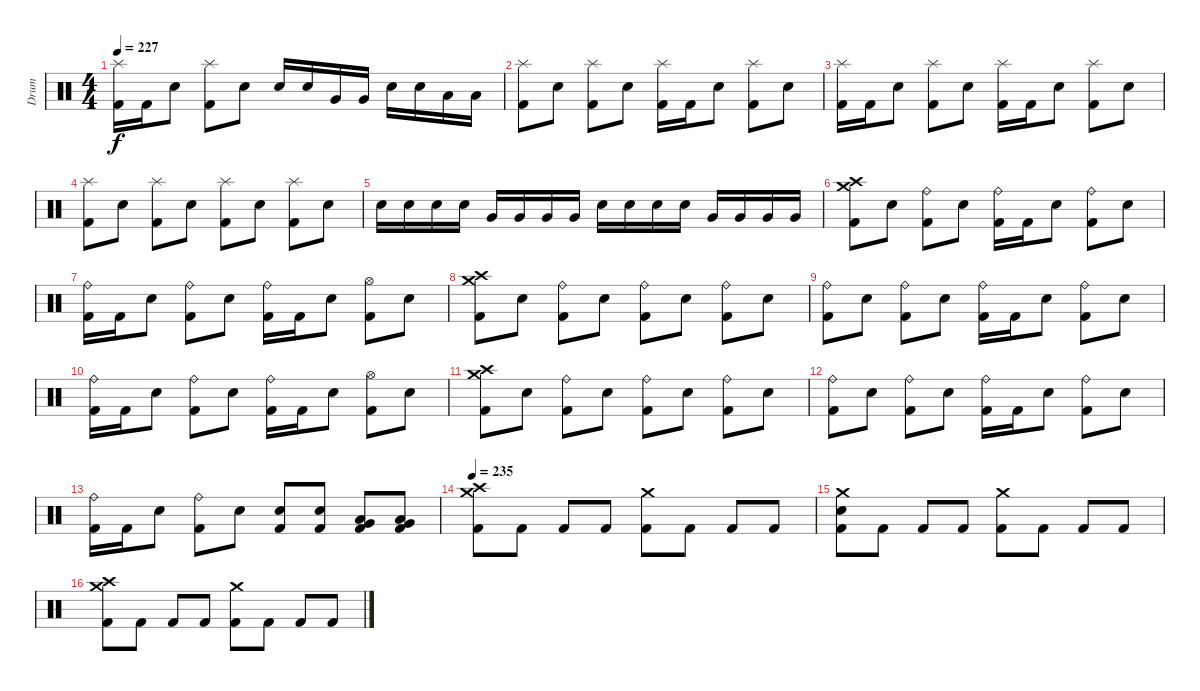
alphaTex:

\track ("Drum" "Drum") {instrument percussion}
\staff {score}
\articulation defaults
\ts (4 4)
\tempo 227
\clef neutral
\ks c
("Splash (hit)" "Kick (hit) 2").16{dy f} "Kick (hit) 2".16 "Electric Snare (hit)".8 ("Splash (hit)" "Kick (hit) 2").8 "Electric Snare (hit)".8 "Electric Snare (hit)".16 "Electric Snare (hit)".16 "Very Low Tom (hit)".16 "Very Low Tom (hit)".16 "Electric Snare (hit)".16 "Electric Snare (hit)".16 "Low Tom (hit)".16 "Low Tom (hit)".16 |
("Splash (hit)" "Kick (hit) 2").8 "Electric Snare (hit)".8 ("Splash (hit)" "Kick (hit) 2").8 "Electric Snare (hit)".8 ("Splash (hit)" "Kick (hit) 2").16 "Kick (hit) 2".16 "Electric Snare (hit)".8 ("Splash (hit)" "Kick (hit) 2").8 "Electric Snare (hit)".8 |
("Splash (hit)" "Kick (hit) 2").16 "Kick (hit) 2".16 "Electric Snare (hit)".8 ("Splash (hit)" "Kick (hit) 2").8 "Electric Snare (hit)".8 ("Splash (hit)" "Kick (hit) 2").16 "Kick (hit) 2".16 "Electric Snare (hit)".8 ("Splash (hit)" "Kick (hit) 2").8 "Electric Snare (hit)".8 |
("Splash (hit)" "Kick (hit) 2").8 "Electric Snare (hit)".8 ("Splash (hit)" "Kick (hit) 2").8 "Electric Snare (hit)".8 ("Splash (hit)" "Kick (hit) 2").8 "Electric Snare (hit)".8 ("Splash (hit)" "Kick (hit) 2").8 "Electric Snare (hit)".8 |
"Electric Snare (hit)".16 "Electric Snare (hit)".16 "Electric Snare (hit)".16 "Electric Snare (hit)".16 "Very Low Tom (hit)".16 "Very Low Tom (hit)".16 "Very Low Tom (hit)".16 "Very Low Tom (hit)".16 "Electric Snare (hit)".16 "Electric Snare (hit)".16 "Electric Snare (hit)".16 "Electric Snare (hit)".16 "Very Low Tom (hit)".16 "Very Low Tom (hit)".16 "Very Low Tom (hit)".16 "Very Low Tom (hit)".16 |
("Crash medium (hit)" "Crash high (hit)" "Kick (hit) 2").8 "Electric Snare (hit)".8 ("Ride (bell)" "Kick (hit) 2").8 "Electric Snare (hit)".8 ("Ride (bell)" "Kick (hit) 2").16 "Kick (hit) 2".16 "Electric Snare (hit)".8 ("Ride (bell)" "Kick (hit) 2").8 "Electric Snare (hit)".8 |
("Ride (bell)" "Kick (hit) 2").16 "Kick (hit) 2".16 "Electric Snare (hit)".8 ("Ride (bell)" "Kick (hit) 2").8 "Electric Snare (hit)".8 ("Ride (bell)" "Kick (hit) 2").16 "Kick (hit) 2".16 "Electric Snare (hit)".8 ("Hi-Hat (open)" "Kick (hit) 2").8 "Electric Snare (hit)".8 |
("Crash medium (hit)" "Crash high (hit)" "Kick (hit) 2").8 "Electric Snare (hit)".8 ("Ride (bell)" "Kick (hit) 2").8 "Electric Snare (hit)".8 ("Ride (bell)" "Kick (hit) 2").8 "Electric Snare (hit)".8 ("Ride (bell)" "Kick (hit) 2").8 "Electric Snare (hit)".8 |
("Ride (bell)" "Kick (hit) 2").8 "Electric Snare (hit)".8 ("Ride (bell)" "Kick (hit) 2").8 "Electric Snare (hit)".8 ("Ride (bell)" "Kick (hit) 2").16 "Kick (hit) 2".16 "Electric Snare (hit)".8 ("Ride (bell)" "Kick (hit) 2").8 "Electric Snare (hit)".8 |
("Ride (bell)" "Kick (hit) 2").16 "Kick (hit) 2".16 "Electric Snare (hit)".8 ("Ride (bell)" "Kick (hit) 2").8 "Electric Snare (hit)".8 ("Ride (bell)" "Kick (hit) 2").16 "Kick (hit) 2".16 "Electric Snare (hit)".8 ("Hi-Hat (open)" "Kick (hit) 2").8 "Electric Snare (hit)".8 |
("Crash medium (hit)" "Crash high (hit)" "Kick (hit) 2").8 "Electric Snare (hit)".8 ("Ride (bell)" "Kick (hit) 2").8 "Electric Snare (hit)".8 ("Ride (bell)" "Kick (hit) 2").8 "Electric Snare (hit)".8 ("Ride (bell)" "Kick (hit) 2").8 "Electric Snare (hit)".8 |
("Ride (bell)" "Kick (hit) 2").8 "Electric Snare (hit)".8 ("Ride (bell)" "Kick (hit) 2").8 "Electric Snare (hit)".8 ("Ride (bell)" "Kick (hit) 2").16 "Kick (hit) 2".16 "Electric Snare (hit)".8 ("Ride (bell)" "Kick (hit) 2").8 "Electric Snare (hit)".8 |
("Ride (bell)" "Kick (hit) 2").16 "Kick (hit) 2".16 "Electric Snare (hit)".8 ("Ride (bell)" "Kick (hit) 2").8 "Electric Snare (hit)".8 ("Electric Snare (hit)" "Kick (hit) 2").8 ("Electric Snare (hit)" "Kick (hit) 2").8 ("Low Tom (hit)" "Very Low Tom (hit)" "Kick (hit) 2").8 ("Low Tom (hit)" "Very Low Tom (hit)" "Kick (hit) 2").8 |
\tempo 235
("Crash medium (hit)" "Crash high (hit)" "Kick (hit) 2").8 "Kick (hit) 2".8 "Kick (hit) 2".8 "Kick (hit) 2".8 ("Crash medium (hit)" "Kick (hit) 2").8 "Kick (hit) 2".8 "Kick (hit) 2".8 "Kick (hit) 2".8 |
("Crash medium (hit)" "Electric Snare (hit)" "Kick (hit) 2").8 "Kick (hit) 2".8 "Kick (hit) 2".8 "Kick (hit) 2".8 ("Crash medium (hit)" "Kick (hit) 2").8 "Kick (hit) 2".8 "Kick (hit) 2".8 "Kick (hit) 2".8 |
("Crash medium (hit)" "Crash high (hit)" "Kick (hit) 2").8 "Kick (hit) 2".8 "Kick (hit) 2".8 "Kick (hit) 2".8 ("Crash medium (hit)" "Kick (hit) 2").8 "Kick (hit) 2".8 "Kick (hit) 2".8 "Kick (hit) 2".8
